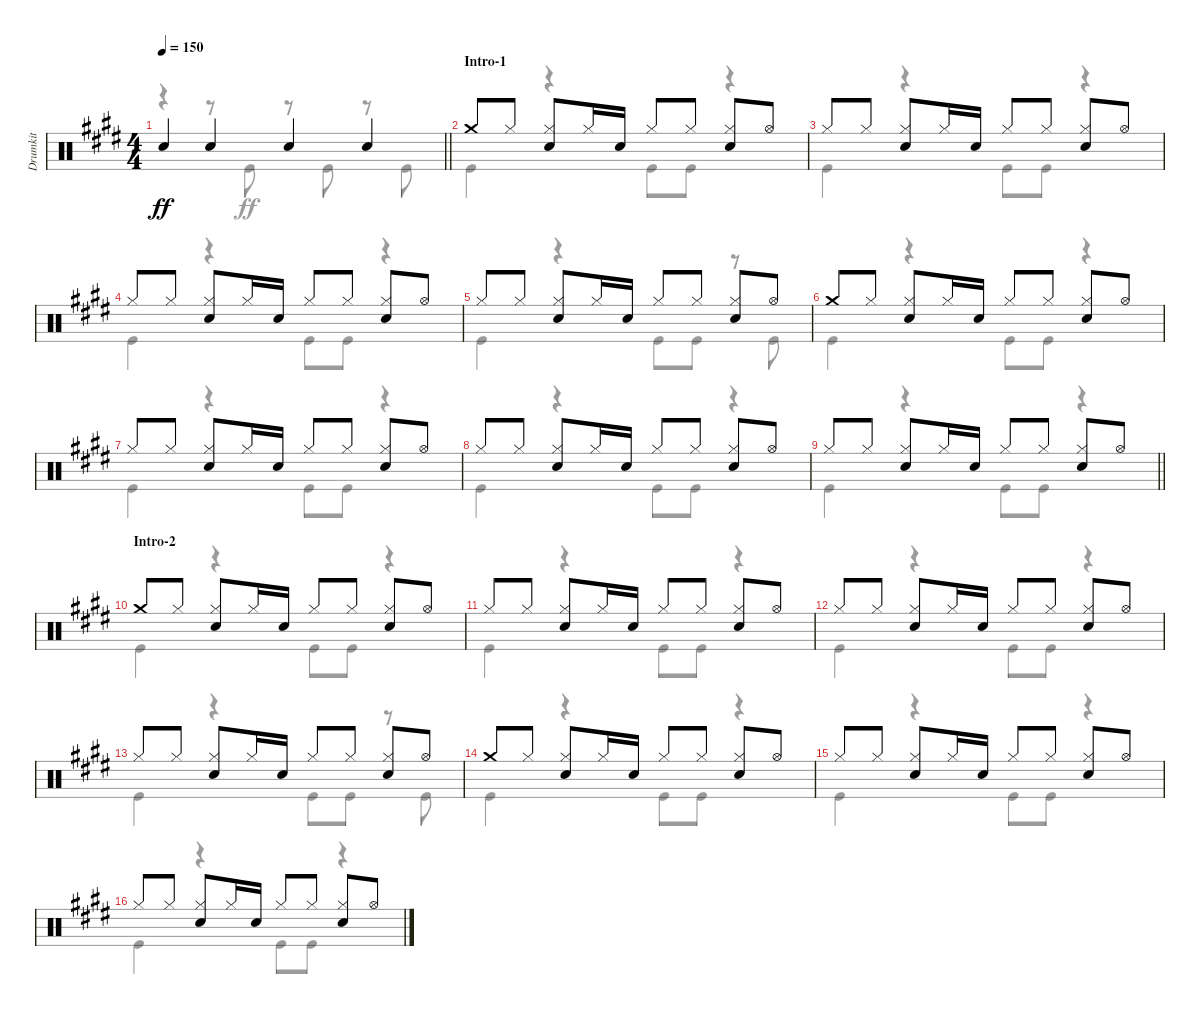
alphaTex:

\track ("Drumkit" "Drumkit") {instrument percussion}
\staff {score}
\articulation defaults
\voice
\ts (4 4)
\tempo 150
\clef neutral
\barLineRight lightlight
\ks e "Snare (hit) 2".4{dy ff} "Snare (hit) 2".4 "Snare (hit) 2".4 "Snare (hit) 2".4
|
\section ("" "Intro-1")
"Crash medium (hit)".8 "Hi-Hat (closed)".8 ("Hi-Hat (closed)" "Snare (hit) 2").8 "Hi-Hat (closed)".16 "Snare (hit) 2".16 "Hi-Hat (closed)".8 "Hi-Hat (closed)".8 ("Hi-Hat (closed)" "Snare (hit) 2").8 "Hi-Hat (open)".8 |
"Hi-Hat (closed)".8 "Hi-Hat (closed)".8 ("Hi-Hat (closed)" "Snare (hit) 2").8 "Hi-Hat (closed)".16 "Snare (hit) 2".16 "Hi-Hat (closed)".8 "Hi-Hat (closed)".8 ("Hi-Hat (closed)" "Snare (hit) 2").8 "Hi-Hat (open)".8 |
"Hi-Hat (closed)".8 "Hi-Hat (closed)".8 ("Hi-Hat (closed)" "Snare (hit) 2").8 "Hi-Hat (closed)".16 "Snare (hit) 2".16 "Hi-Hat (closed)".8 "Hi-Hat (closed)".8 ("Hi-Hat (closed)" "Snare (hit) 2").8 "Hi-Hat (open)".8 |
"Hi-Hat (closed)".8 "Hi-Hat (closed)".8 ("Hi-Hat (closed)" "Snare (hit) 2").8 "Hi-Hat (closed)".16 "Snare (hit) 2".16 "Hi-Hat (closed)".8 "Hi-Hat (closed)".8 ("Hi-Hat (closed)" "Snare (hit) 2").8 "Hi-Hat (open)".8 |
"Crash medium (hit)".8 "Hi-Hat (closed)".8 ("Hi-Hat (closed)" "Snare (hit) 2").8 "Hi-Hat (closed)".16 "Snare (hit) 2".16 "Hi-Hat (closed)".8 "Hi-Hat (closed)".8 ("Hi-Hat (closed)" "Snare (hit) 2").8 "Hi-Hat (open)".8 |
"Hi-Hat (closed)".8 "Hi-Hat (closed)".8 ("Hi-Hat (closed)" "Snare (hit) 2").8 "Hi-Hat (closed)".16 "Snare (hit) 2".16 "Hi-Hat (closed)".8 "Hi-Hat (closed)".8 ("Hi-Hat (closed)" "Snare (hit) 2").8 "Hi-Hat (open)".8 |
"Hi-Hat (closed)".8 "Hi-Hat (closed)".8 ("Hi-Hat (closed)" "Snare (hit) 2").8 "Hi-Hat (closed)".16 "Snare (hit) 2".16 "Hi-Hat (closed)".8 "Hi-Hat (closed)".8 ("Hi-Hat (closed)" "Snare (hit) 2").8 "Hi-Hat (open)".8 |
\barLineRight lightlight "Hi-Hat (closed)".8 "Hi-Hat (closed)".8
("Hi-Hat (closed)" "Snare (hit) 2").8 "Hi-Hat (closed)".16 "Snare (hit) 2".16 "Hi-Hat (closed)".8 "Hi-Hat (closed)".8 ("Hi-Hat (closed)" "Snare (hit) 2").8 "Hi-Hat (open)".8 |
\section ("" "Intro-2")
"Crash medium (hit)".8 "Hi-Hat (closed)".8 ("Hi-Hat (closed)" "Snare (hit) 2").8 "Hi-Hat (closed)".16 "Snare (hit) 2".16 "Hi-Hat (closed)".8 "Hi-Hat (closed)".8 ("Hi-Hat (closed)" "Snare (hit) 2").8 "Hi-Hat (open)".8 |
"Hi-Hat (closed)".8 "Hi-Hat (closed)".8 ("Hi-Hat (closed)" "Snare (hit) 2").8 "Hi-Hat (closed)".16 "Snare (hit) 2".16 "Hi-Hat (closed)".8 "Hi-Hat (closed)".8 ("Hi-Hat (closed)" "Snare (hit) 2").8 "Hi-Hat (open)".8 |
"Hi-Hat (closed)".8 "Hi-Hat (closed)".8 ("Hi-Hat (closed)" "Snare (hit) 2").8 "Hi-Hat (closed)".16 "Snare (hit) 2".16 "Hi-Hat (closed)".8 "Hi-Hat (closed)".8 ("Hi-Hat (closed)" "Snare (hit) 2").8 "Hi-Hat (open)".8 |
"Hi-Hat (closed)".8 "Hi-Hat (closed)".8 ("Hi-Hat (closed)" "Snare (hit) 2").8 "Hi-Hat (closed)".16 "Snare (hit) 2".16 "Hi-Hat (closed)".8 "Hi-Hat (closed)".8 ("Hi-Hat (closed)" "Snare (hit) 2").8 "Hi-Hat (open)".8 |
"Crash medium (hit)".8 "Hi-Hat (closed)".8 ("Hi-Hat (closed)" "Snare (hit) 2").8 "Hi-Hat (closed)".16 "Snare (hit) 2".16 "Hi-Hat (closed)".8 "Hi-Hat (closed)".8 ("Hi-Hat (closed)" "Snare (hit) 2").8 "Hi-Hat (open)".8 |
"Hi-Hat (closed)".8 "Hi-Hat (closed)".8 ("Hi-Hat (closed)" "Snare (hit) 2").8 "Hi-Hat (closed)".16 "Snare (hit) 2".16 "Hi-Hat (closed)".8 "Hi-Hat (closed)".8 ("Hi-Hat (closed)" "Snare (hit) 2").8 "Hi-Hat (open)".8 |
"Hi-Hat (closed)".8 "Hi-Hat (closed)".8 ("Hi-Hat (closed)" "Snare (hit) 2").8 "Hi-Hat (closed)".16 "Snare (hit) 2".16 "Hi-Hat (closed)".8 "Hi-Hat (closed)".8 ("Hi-Hat (closed)" "Snare (hit) 2").8 "Hi-Hat (open)".8
\voice
\clef neutral
\ottava regular
\simile none
\barLineRight lightlight
\ks e
r.4{dy ff} r.8 "Kick (hit)".8 r.8 "Kick (hit)".8 r.8 "Kick (hit)".8 |
"Kick (hit)".4 r.4 "Kick (hit)".8 "Kick (hit)".8 r.4 |
"Kick (hit)".4 r.4 "Kick (hit)".8 "Kick (hit)".8 r.4 |
"Kick (hit)".4 r.4 "Kick (hit)".8 "Kick (hit)".8 r.4 |
"Kick (hit)".4 r.4 "Kick (hit)".8 "Kick (hit)".8 r.8 "Kick (hit)".8 |
"Kick (hit)".4 r.4 "Kick (hit)".8 "Kick (hit)".8 r.4 |
"Kick (hit)".4 r.4 "Kick (hit)".8 "Kick (hit)".8 r.4 |
"Kick (hit)".4 r.4 "Kick (hit)".8 "Kick (hit)".8 r.4 |
\barLineRight lightlight "Kick (hit)".4
r.4 "Kick (hit)".8 "Kick (hit)".8 r.4 |
"Kick (hit)".4 r.4 "Kick (hit)".8 "Kick (hit)".8 r.4 |
"Kick (hit)".4 r.4 "Kick (hit)".8 "Kick (hit)".8 r.4 |
"Kick (hit)".4 r.4 "Kick (hit)".8 "Kick (hit)".8 r.4 |
"Kick (hit)".4 r.4 "Kick (hit)".8 "Kick (hit)".8 r.8 "Kick (hit)".8 |
"Kick (hit)".4 r.4 "Kick (hit)".8 "Kick (hit)".8 r.4 |
"Kick (hit)".4 r.4 "Kick (hit)".8 "Kick (hit)".8 r.4 |
"Kick (hit)".4 r.4 "Kick (hit)".8 "Kick (hit)".8 r.4
